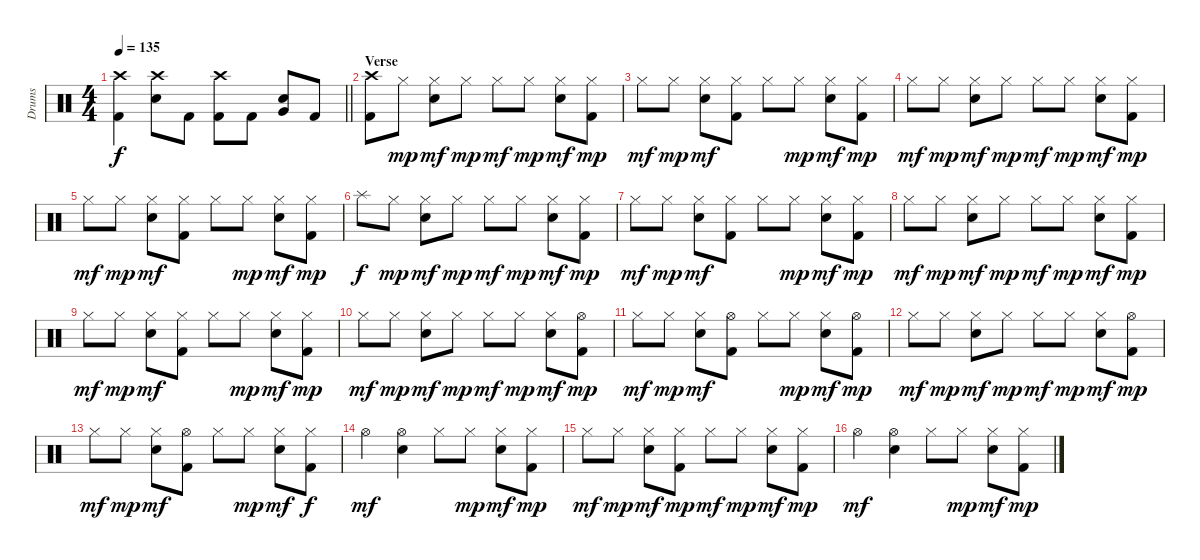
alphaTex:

\track ("Drums" "Drums") {instrument percussion}
\staff {score}
\articulation defaults
\ts (4 4)
\tempo 135
\clef neutral
\barLineRight lightlight
\ks c
("Crash high (hit)" "Kick (hit) 2").4{dy f} ("Crash high (hit)" "Electric Snare (hit)").8 "Kick (hit) 2".8 ("Crash high (hit)" "Kick (hit) 2").8 "Kick (hit) 2".8 ("Very Low Tom (hit)" "Electric Snare (hit)").8 "Kick (hit) 2".8 |
\section ("" "Verse")
("Crash high (hit)" "Kick (hit) 2").8 "Hi-Hat (closed)".8{dy mp} ("Hi-Hat (closed)" "Electric Snare (hit)").8{dy mf} "Hi-Hat (closed)".8{dy mp} "Hi-Hat (closed)".8{dy mf} "Hi-Hat (closed)".8{dy mp} ("Hi-Hat (closed)" "Electric Snare (hit)").8{dy mf} ("Hi-Hat (closed)" "Kick (hit) 2").8{dy mp} |
"Hi-Hat (closed)".8{dy mf} "Hi-Hat (closed)".8{dy mp} ("Hi-Hat (closed)" "Electric Snare (hit)").8{dy mf} ("Hi-Hat (closed)" "Kick (hit) 2").8 "Hi-Hat (closed)".8 "Hi-Hat (closed)".8{dy mp} ("Hi-Hat (closed)" "Electric Snare (hit)").8{dy mf} ("Hi-Hat (closed)" "Kick (hit) 2").8{dy mp} |
"Hi-Hat (closed)".8{dy mf} "Hi-Hat (closed)".8{dy mp} ("Hi-Hat (closed)" "Electric Snare (hit)").8{dy mf} "Hi-Hat (closed)".8{dy mp} "Hi-Hat (closed)".8{dy mf} "Hi-Hat (closed)".8{dy mp} ("Hi-Hat (closed)" "Electric Snare (hit)").8{dy mf} ("Hi-Hat (closed)" "Kick (hit) 2").8{dy mp} |
"Hi-Hat (closed)".8{dy mf} "Hi-Hat (closed)".8{dy mp} ("Hi-Hat (closed)" "Electric Snare (hit)").8{dy mf} ("Hi-Hat (closed)" "Kick (hit) 2").8 "Hi-Hat (closed)".8 "Hi-Hat (closed)".8{dy mp} ("Hi-Hat (closed)" "Electric Snare (hit)").8{dy mf} ("Hi-Hat (closed)" "Kick (hit) 2").8{dy mp} |
"Splash (hit)".8{dy f} "Hi-Hat (closed)".8{dy mp} ("Hi-Hat (closed)" "Electric Snare (hit)").8{dy mf} "Hi-Hat (closed)".8{dy mp} "Hi-Hat (closed)".8{dy mf} "Hi-Hat (closed)".8{dy mp} ("Hi-Hat (closed)" "Electric Snare (hit)").8{dy mf} ("Hi-Hat (closed)" "Kick (hit) 2").8{dy mp} |
"Hi-Hat (closed)".8{dy mf} "Hi-Hat (closed)".8{dy mp} ("Hi-Hat (closed)" "Electric Snare (hit)").8{dy mf} ("Hi-Hat (closed)" "Kick (hit) 2").8 "Hi-Hat (closed)".8 "Hi-Hat (closed)".8{dy mp} ("Hi-Hat (closed)" "Electric Snare (hit)").8{dy mf} ("Hi-Hat (closed)" "Kick (hit) 2").8{dy mp} |
"Hi-Hat (closed)".8{dy mf} "Hi-Hat (closed)".8{dy mp} ("Hi-Hat (closed)" "Electric Snare (hit)").8{dy mf} "Hi-Hat (closed)".8{dy mp} "Hi-Hat (closed)".8{dy mf} "Hi-Hat (closed)".8{dy mp} ("Hi-Hat (closed)" "Electric Snare (hit)").8{dy mf} ("Hi-Hat (closed)" "Kick (hit) 2").8{dy mp} |
"Hi-Hat (closed)".8{dy mf} "Hi-Hat (closed)".8{dy mp} ("Hi-Hat (closed)" "Electric Snare (hit)").8{dy mf} ("Hi-Hat (closed)" "Kick (hit) 2").8 "Hi-Hat (closed)".8 "Hi-Hat (closed)".8{dy mp} ("Hi-Hat (closed)" "Electric Snare (hit)").8{dy mf} ("Hi-Hat (closed)" "Kick (hit) 2").8{dy mp} |
"Hi-Hat (closed)".8{dy mf} "Hi-Hat (closed)".8{dy mp} ("Hi-Hat (closed)" "Electric Snare (hit)").8{dy mf} "Hi-Hat (closed)".8{dy mp} "Hi-Hat (closed)".8{dy mf} "Hi-Hat (closed)".8{dy mp} ("Hi-Hat (closed)" "Electric Snare (hit)").8{dy mf} ("Hi-Hat (open)" "Kick (hit) 2").8{dy mp} |
"Hi-Hat (closed)".8{dy mf} "Hi-Hat (closed)".8{dy mp} ("Hi-Hat (closed)" "Electric Snare (hit)").8{dy mf} ("Hi-Hat (open)" "Kick (hit) 2").8 "Hi-Hat (closed)".8 "Hi-Hat (closed)".8{dy mp} ("Hi-Hat (closed)" "Electric Snare (hit)").8{dy mf} ("Hi-Hat (open)" "Kick (hit) 2").8{dy mp} |
"Hi-Hat (closed)".8{dy mf} "Hi-Hat (closed)".8{dy mp} ("Hi-Hat (closed)" "Electric Snare (hit)").8{dy mf} "Hi-Hat (closed)".8{dy mp} "Hi-Hat (closed)".8{dy mf} "Hi-Hat (closed)".8{dy mp} ("Hi-Hat (closed)" "Electric Snare (hit)").8{dy mf} ("Hi-Hat (open)" "Kick (hit) 2").8{dy mp} |
"Hi-Hat (closed)".8{dy mf} "Hi-Hat (closed)".8{dy mp} ("Hi-Hat (closed)" "Electric Snare (hit)").8{dy mf} ("Hi-Hat (open)" "Kick (hit) 2").8 "Hi-Hat (closed)".8 "Hi-Hat (closed)".8{dy mp} ("Hi-Hat (closed)" "Electric Snare (hit)").8{dy mf} ("Hi-Hat (closed)" "Kick (hit) 2").8{dy f} |
"Hi-Hat (open)".4{dy mf} ("Hi-Hat (open)" "Electric Snare (hit)").4 "Hi-Hat (closed)".8 "Hi-Hat (closed)".8{dy mp} ("Hi-Hat (closed)" "Electric Snare (hit)").8{dy mf} ("Hi-Hat (closed)" "Kick (hit) 2").8{dy mp} |
"Hi-Hat (closed)".8{dy mf} "Hi-Hat (closed)".8{dy mp} ("Hi-Hat (closed)" "Electric Snare (hit)").8{dy mf} ("Hi-Hat (closed)" "Kick (hit) 2").8{dy mp} "Hi-Hat (closed)".8{dy mf} "Hi-Hat (closed)".8{dy mp} ("Hi-Hat (closed)" "Electric Snare (hit)").8{dy mf} ("Hi-Hat (closed)" "Kick (hit) 2").8{dy mp} |
"Hi-Hat (open)".4{dy mf} ("Hi-Hat (open)" "Electric Snare (hit)").4 "Hi-Hat (closed)".8 "Hi-Hat (closed)".8{dy mp} ("Hi-Hat (closed)" "Electric Snare (hit)").8{dy mf} ("Hi-Hat (closed)" "Kick (hit) 2").8{dy mp}
